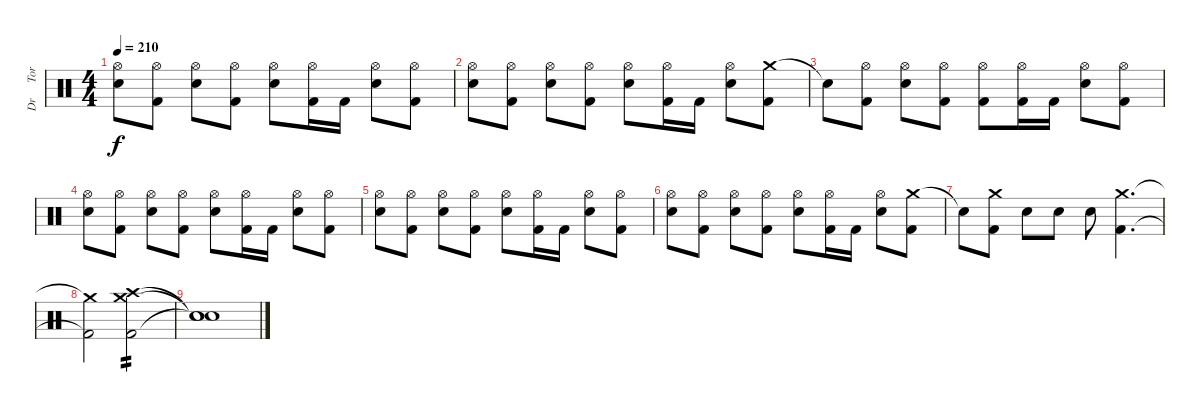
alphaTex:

\track ("Dr     Tora" "Dr     Tor") {instrument percussion}
\staff {score}
\articulation defaults
\ts (4 4)
\tempo 210
\clef neutral
\ks c
("Hi-Hat (open)" "Electric Snare (hit)").8{dy f} ("Hi-Hat (open)" "Kick (hit) 2").8 ("Hi-Hat (open)" "Electric Snare (hit)").8 ("Hi-Hat (open)" "Kick (hit) 2").8 ("Hi-Hat (open)" "Electric Snare (hit)").8 ("Hi-Hat (open)" "Kick (hit) 2").16 "Kick (hit) 2".16 ("Hi-Hat (open)" "Electric Snare (hit)").8 ("Hi-Hat (open)" "Kick (hit) 2").8 |
("Hi-Hat (open)" "Electric Snare (hit)").8 ("Hi-Hat (open)" "Kick (hit) 2").8 ("Hi-Hat (open)" "Electric Snare (hit)").8 ("Hi-Hat (open)" "Kick (hit) 2").8 ("Hi-Hat (open)" "Electric Snare (hit)").8 ("Hi-Hat (open)" "Kick (hit) 2").16 "Kick (hit) 2".16 ("Hi-Hat (open)" "Electric Snare (hit)").8 ("Crash medium (hit)" "Kick (hit) 2").8 |
"Snare (hit)"{t}.8 ("Hi-Hat (open)" "Kick (hit) 2").8 ("Hi-Hat (open)" "Electric Snare (hit)").8 ("Hi-Hat (open)" "Kick (hit) 2").8 ("Hi-Hat (open)" "Kick (hit) 2").8 ("Hi-Hat (open)" "Kick (hit) 2").16 "Kick (hit) 2".16 ("Hi-Hat (open)" "Electric Snare (hit)").8 ("Hi-Hat (open)" "Kick (hit) 2").8 |
("Hi-Hat (open)" "Electric Snare (hit)").8 ("Hi-Hat (open)" "Kick (hit) 2").8 ("Hi-Hat (open)" "Electric Snare (hit)").8 ("Hi-Hat (open)" "Kick (hit) 2").8 ("Hi-Hat (open)" "Electric Snare (hit)").8 ("Hi-Hat (open)" "Kick (hit) 2").16 "Kick (hit) 2".16 ("Hi-Hat (open)" "Electric Snare (hit)").8 ("Hi-Hat (open)" "Kick (hit) 2").8 |
("Hi-Hat (open)" "Electric Snare (hit)").8 ("Hi-Hat (open)" "Kick (hit) 2").8 ("Hi-Hat (open)" "Electric Snare (hit)").8 ("Hi-Hat (open)" "Kick (hit) 2").8 ("Hi-Hat (open)" "Electric Snare (hit)").8 ("Hi-Hat (open)" "Kick (hit) 2").16 "Kick (hit) 2".16 ("Hi-Hat (open)" "Electric Snare (hit)").8 ("Hi-Hat (open)" "Kick (hit) 2").8 |
("Hi-Hat (open)" "Electric Snare (hit)").8 ("Hi-Hat (open)" "Kick (hit) 2").8 ("Hi-Hat (open)" "Electric Snare (hit)").8 ("Hi-Hat (open)" "Kick (hit) 2").8 ("Hi-Hat (open)" "Electric Snare (hit)").8 ("Hi-Hat (open)" "Kick (hit) 2").16 "Kick (hit) 2".16 ("Hi-Hat (open)" "Electric Snare (hit)").8 ("Crash medium (hit)" "Kick (hit) 2").8 |
"Snare (hit)"{t}.8 ("Crash medium (hit)" "Kick (hit) 2").8 "Electric Snare (hit)".8 "Electric Snare (hit)".8 "Electric Snare (hit)".8 ("Crash medium (hit)" "Kick (hit) 2").4{d} |
("Crash medium (hit)"{t} "Kick (hit) 2"{t}).2 ("Crash high (hit)" "Crash medium (hit)" "Kick (hit) 2").2{tp 2 volume 6} |
("Snare (hit)"{t} "Snare (hit)"{t} "Snare (hit)"{t}).1
